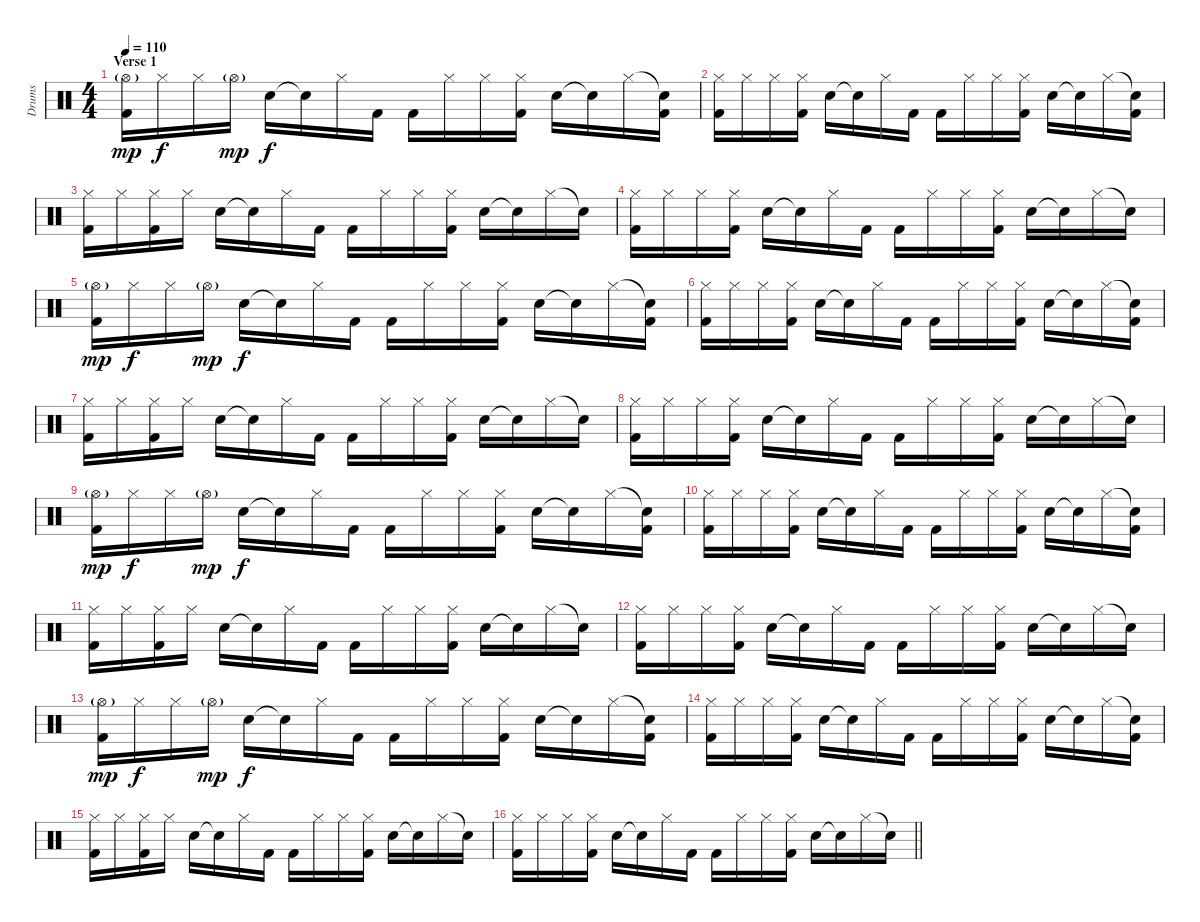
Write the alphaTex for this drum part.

\track ("Drums" "Drums") {instrument percussion}
\staff {score}
\articulation defaults
\ts (4 4)
\section ("" "Verse 1")
\tempo 110
\clef neutral
\ks c
("Hi-Hat (open)"{g} "Kick (hit) 2").16{dy mp} "Hi-Hat (closed)".16{dy f} "Hi-Hat (closed)".16 "Hi-Hat (open)"{g}.16{dy mp} "Electric Snare (hit)".16{dy f} "Snare (hit)"{t}.16 "Hi-Hat (closed)".16 "Kick (hit) 2".16 "Kick (hit) 2".16 "Hi-Hat (closed)".16 "Hi-Hat (closed)".16 ("Hi-Hat (closed)" "Kick (hit) 2").16 "Electric Snare (hit)".16 "Snare (hit)"{t}.16 "Hi-Hat (closed)".16 ("Snare (hit)"{t} "Kick (hit) 2").16 |
("Hi-Hat (closed)" "Kick (hit) 2").16 "Hi-Hat (closed)".16 "Hi-Hat (closed)".16 ("Hi-Hat (closed)" "Kick (hit) 2").16 "Electric Snare (hit)".16 "Snare (hit)"{t}.16 "Hi-Hat (closed)".16 "Kick (hit) 2".16 "Kick (hit) 2".16 "Hi-Hat (closed)".16 "Hi-Hat (closed)".16 ("Hi-Hat (closed)" "Kick (hit) 2").16 "Electric Snare (hit)".16 "Snare (hit)"{t}.16 "Hi-Hat (closed)".16 ("Snare (hit)"{t} "Kick (hit) 2").16 |
("Hi-Hat (closed)" "Kick (hit) 2").16 "Hi-Hat (closed)".16 ("Hi-Hat (closed)" "Kick (hit) 2").16 "Hi-Hat (closed)".16 "Electric Snare (hit)".16 "Snare (hit)"{t}.16 "Hi-Hat (closed)".16 "Kick (hit) 2".16 "Kick (hit) 2".16 "Hi-Hat (closed)".16 "Hi-Hat (closed)".16 ("Hi-Hat (closed)" "Kick (hit) 2").16 "Electric Snare (hit)".16 "Snare (hit)"{t}.16 "Hi-Hat (closed)".16 "Snare (hit)"{t}.16 |
("Hi-Hat (closed)" "Kick (hit) 2").16 "Hi-Hat (closed)".16 "Hi-Hat (closed)".16 ("Hi-Hat (closed)" "Kick (hit) 2").16 "Electric Snare (hit)".16 "Snare (hit)"{t}.16 "Hi-Hat (closed)".16 "Kick (hit) 2".16 "Kick (hit) 2".16 "Hi-Hat (closed)".16 "Hi-Hat (closed)".16 ("Hi-Hat (closed)" "Kick (hit) 2").16 "Electric Snare (hit)".16 "Snare (hit)"{t}.16 "Hi-Hat (closed)".16 "Snare (hit)"{t}.16 |
("Hi-Hat (open)"{g} "Kick (hit) 2").16{dy mp} "Hi-Hat (closed)".16{dy f} "Hi-Hat (closed)".16 "Hi-Hat (open)"{g}.16{dy mp} "Electric Snare (hit)".16{dy f} "Snare (hit)"{t}.16 "Hi-Hat (closed)".16 "Kick (hit) 2".16 "Kick (hit) 2".16 "Hi-Hat (closed)".16 "Hi-Hat (closed)".16 ("Hi-Hat (closed)" "Kick (hit) 2").16 "Electric Snare (hit)".16 "Snare (hit)"{t}.16 "Hi-Hat (closed)".16 ("Snare (hit)"{t} "Kick (hit) 2").16 |
("Hi-Hat (closed)" "Kick (hit) 2").16 "Hi-Hat (closed)".16 "Hi-Hat (closed)".16 ("Hi-Hat (closed)" "Kick (hit) 2").16 "Electric Snare (hit)".16 "Snare (hit)"{t}.16 "Hi-Hat (closed)".16 "Kick (hit) 2".16 "Kick (hit) 2".16 "Hi-Hat (closed)".16 "Hi-Hat (closed)".16 ("Hi-Hat (closed)" "Kick (hit) 2").16 "Electric Snare (hit)".16 "Snare (hit)"{t}.16 "Hi-Hat (closed)".16 ("Snare (hit)"{t} "Kick (hit) 2").16 |
("Hi-Hat (closed)" "Kick (hit) 2").16 "Hi-Hat (closed)".16 ("Hi-Hat (closed)" "Kick (hit) 2").16 "Hi-Hat (closed)".16 "Electric Snare (hit)".16 "Snare (hit)"{t}.16 "Hi-Hat (closed)".16 "Kick (hit) 2".16 "Kick (hit) 2".16 "Hi-Hat (closed)".16 "Hi-Hat (closed)".16 ("Hi-Hat (closed)" "Kick (hit) 2").16 "Electric Snare (hit)".16 "Snare (hit)"{t}.16 "Hi-Hat (closed)".16 "Snare (hit)"{t}.16 |
("Hi-Hat (closed)" "Kick (hit) 2").16 "Hi-Hat (closed)".16 "Hi-Hat (closed)".16 ("Hi-Hat (closed)" "Kick (hit) 2").16 "Electric Snare (hit)".16 "Snare (hit)"{t}.16 "Hi-Hat (closed)".16 "Kick (hit) 2".16 "Kick (hit) 2".16 "Hi-Hat (closed)".16 "Hi-Hat (closed)".16 ("Hi-Hat (closed)" "Kick (hit) 2").16 "Electric Snare (hit)".16 "Snare (hit)"{t}.16 "Hi-Hat (closed)".16 "Snare (hit)"{t}.16 |
("Hi-Hat (open)"{g} "Kick (hit) 2").16{dy mp} "Hi-Hat (closed)".16{dy f} "Hi-Hat (closed)".16 "Hi-Hat (open)"{g}.16{dy mp} "Electric Snare (hit)".16{dy f} "Snare (hit)"{t}.16 "Hi-Hat (closed)".16 "Kick (hit) 2".16 "Kick (hit) 2".16 "Hi-Hat (closed)".16 "Hi-Hat (closed)".16 ("Hi-Hat (closed)" "Kick (hit) 2").16 "Electric Snare (hit)".16 "Snare (hit)"{t}.16 "Hi-Hat (closed)".16 ("Snare (hit)"{t} "Kick (hit) 2").16 |
("Hi-Hat (closed)" "Kick (hit) 2").16 "Hi-Hat (closed)".16 "Hi-Hat (closed)".16 ("Hi-Hat (closed)" "Kick (hit) 2").16 "Electric Snare (hit)".16 "Snare (hit)"{t}.16 "Hi-Hat (closed)".16 "Kick (hit) 2".16 "Kick (hit) 2".16 "Hi-Hat (closed)".16 "Hi-Hat (closed)".16 ("Hi-Hat (closed)" "Kick (hit) 2").16 "Electric Snare (hit)".16 "Snare (hit)"{t}.16 "Hi-Hat (closed)".16 ("Snare (hit)"{t} "Kick (hit) 2").16 |
("Hi-Hat (closed)" "Kick (hit) 2").16 "Hi-Hat (closed)".16 ("Hi-Hat (closed)" "Kick (hit) 2").16 "Hi-Hat (closed)".16 "Electric Snare (hit)".16 "Snare (hit)"{t}.16 "Hi-Hat (closed)".16 "Kick (hit) 2".16 "Kick (hit) 2".16 "Hi-Hat (closed)".16 "Hi-Hat (closed)".16 ("Hi-Hat (closed)" "Kick (hit) 2").16 "Electric Snare (hit)".16 "Snare (hit)"{t}.16 "Hi-Hat (closed)".16 "Snare (hit)"{t}.16 |
("Hi-Hat (closed)" "Kick (hit) 2").16 "Hi-Hat (closed)".16 "Hi-Hat (closed)".16 ("Hi-Hat (closed)" "Kick (hit) 2").16 "Electric Snare (hit)".16 "Snare (hit)"{t}.16 "Hi-Hat (closed)".16 "Kick (hit) 2".16 "Kick (hit) 2".16 "Hi-Hat (closed)".16 "Hi-Hat (closed)".16 ("Hi-Hat (closed)" "Kick (hit) 2").16 "Electric Snare (hit)".16 "Snare (hit)"{t}.16 "Hi-Hat (closed)".16 "Snare (hit)"{t}.16 |
("Hi-Hat (open)"{g} "Kick (hit) 2").16{dy mp} "Hi-Hat (closed)".16{dy f} "Hi-Hat (closed)".16 "Hi-Hat (open)"{g}.16{dy mp} "Electric Snare (hit)".16{dy f} "Snare (hit)"{t}.16 "Hi-Hat (closed)".16 "Kick (hit) 2".16 "Kick (hit) 2".16 "Hi-Hat (closed)".16 "Hi-Hat (closed)".16 ("Hi-Hat (closed)" "Kick (hit) 2").16 "Electric Snare (hit)".16 "Snare (hit)"{t}.16 "Hi-Hat (closed)".16 ("Snare (hit)"{t} "Kick (hit) 2").16 |
("Hi-Hat (closed)" "Kick (hit) 2").16 "Hi-Hat (closed)".16 "Hi-Hat (closed)".16 ("Hi-Hat (closed)" "Kick (hit) 2").16 "Electric Snare (hit)".16 "Snare (hit)"{t}.16 "Hi-Hat (closed)".16 "Kick (hit) 2".16 "Kick (hit) 2".16 "Hi-Hat (closed)".16 "Hi-Hat (closed)".16 ("Hi-Hat (closed)" "Kick (hit) 2").16 "Electric Snare (hit)".16 "Snare (hit)"{t}.16 "Hi-Hat (closed)".16 ("Snare (hit)"{t} "Kick (hit) 2").16 |
("Hi-Hat (closed)" "Kick (hit) 2").16 "Hi-Hat (closed)".16 ("Hi-Hat (closed)" "Kick (hit) 2").16 "Hi-Hat (closed)".16 "Electric Snare (hit)".16 "Snare (hit)"{t}.16 "Hi-Hat (closed)".16 "Kick (hit) 2".16 "Kick (hit) 2".16 "Hi-Hat (closed)".16 "Hi-Hat (closed)".16 ("Hi-Hat (closed)" "Kick (hit) 2").16 "Electric Snare (hit)".16 "Snare (hit)"{t}.16 "Hi-Hat (closed)".16 "Snare (hit)"{t}.16 |
\barLineRight lightlight
("Hi-Hat (closed)" "Kick (hit) 2").16 "Hi-Hat (closed)".16 "Hi-Hat (closed)".16 ("Hi-Hat (closed)" "Kick (hit) 2").16 "Electric Snare (hit)".16 "Snare (hit)"{t}.16 "Hi-Hat (closed)".16 "Kick (hit) 2".16 "Kick (hit) 2".16 "Hi-Hat (closed)".16 "Hi-Hat (closed)".16 ("Hi-Hat (closed)" "Kick (hit) 2").16 "Electric Snare (hit)".16 "Snare (hit)"{t}.16 "Hi-Hat (closed)".16 "Snare (hit)"{t}.16
